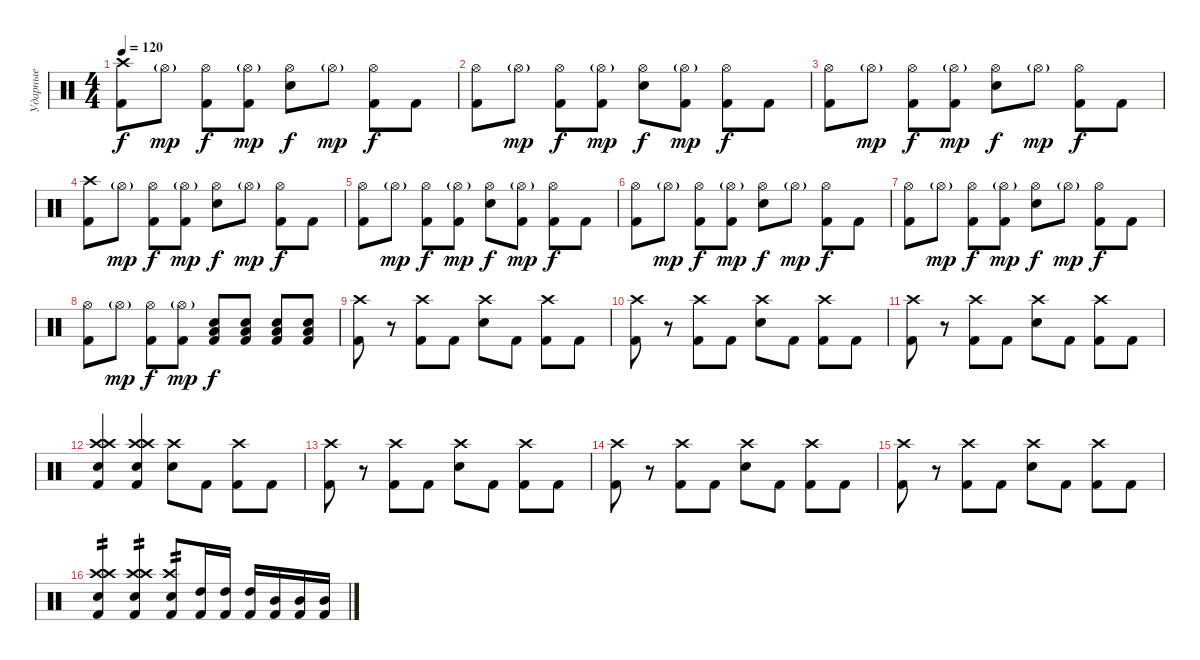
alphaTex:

\track ("Ударные" "Ударные") {instrument percussion}
\staff {score}
\articulation defaults
\ts (4 4)
\tempo 120
\clef neutral
\ks c
("Kick (hit) 2" "Crash high (hit)").8{dy f} "Hi-Hat (open)"{g}.8{dy mp} ("Hi-Hat (open)" "Kick (hit) 2").8{dy f} ("Hi-Hat (open)"{g} "Kick (hit) 2").8{dy mp} ("Hi-Hat (open)" "Snare (hit) 2").8{dy f} "Hi-Hat (open)"{g}.8{dy mp} ("Hi-Hat (open)" "Kick (hit) 2").8{dy f} "Kick (hit) 2".8 |
("Kick (hit) 2" "Hi-Hat (open)").8 "Hi-Hat (open)"{g}.8{dy mp} ("Hi-Hat (open)" "Kick (hit) 2").8{dy f} ("Hi-Hat (open)"{g} "Kick (hit) 2").8{dy mp} ("Hi-Hat (open)" "Snare (hit) 2").8{dy f} ("Hi-Hat (open)"{g} "Kick (hit) 2").8{dy mp} ("Hi-Hat (open)" "Kick (hit) 2").8{dy f} "Kick (hit) 2".8 |
("Kick (hit) 2" "Hi-Hat (open)").8 "Hi-Hat (open)"{g}.8{dy mp} ("Hi-Hat (open)" "Kick (hit) 2").8{dy f} ("Hi-Hat (open)"{g} "Kick (hit) 2").8{dy mp} ("Hi-Hat (open)" "Snare (hit) 2").8{dy f} "Hi-Hat (open)"{g}.8{dy mp} ("Hi-Hat (open)" "Kick (hit) 2").8{dy f} "Kick (hit) 2".8 |
("Kick (hit) 2" "Crash high (hit)").8 "Hi-Hat (open)"{g}.8{dy mp} ("Hi-Hat (open)" "Kick (hit) 2").8{dy f} ("Hi-Hat (open)"{g} "Kick (hit) 2").8{dy mp} ("Hi-Hat (open)" "Snare (hit) 2").8{dy f} "Hi-Hat (open)"{g}.8{dy mp} ("Hi-Hat (open)" "Kick (hit) 2").8{dy f} "Kick (hit) 2".8 |
("Kick (hit) 2" "Hi-Hat (open)").8 "Hi-Hat (open)"{g}.8{dy mp} ("Hi-Hat (open)" "Kick (hit) 2").8{dy f} ("Hi-Hat (open)"{g} "Kick (hit) 2").8{dy mp} ("Hi-Hat (open)" "Snare (hit) 2").8{dy f} ("Hi-Hat (open)"{g} "Kick (hit) 2").8{dy mp} ("Hi-Hat (open)" "Kick (hit) 2").8{dy f} "Kick (hit) 2".8 |
("Kick (hit) 2" "Hi-Hat (open)").8 "Hi-Hat (open)"{g}.8{dy mp} ("Hi-Hat (open)" "Kick (hit) 2").8{dy f} ("Hi-Hat (open)"{g} "Kick (hit) 2").8{dy mp} ("Hi-Hat (open)" "Snare (hit) 2").8{dy f} "Hi-Hat (open)"{g}.8{dy mp} ("Hi-Hat (open)" "Kick (hit) 2").8{dy f} "Kick (hit) 2".8 |
("Kick (hit) 2" "Hi-Hat (open)").8 "Hi-Hat (open)"{g}.8{dy mp} ("Hi-Hat (open)" "Kick (hit) 2").8{dy f} ("Hi-Hat (open)"{g} "Kick (hit) 2").8{dy mp} ("Hi-Hat (open)" "Snare (hit) 2").8{dy f} "Hi-Hat (open)"{g}.8{dy mp} ("Hi-Hat (open)" "Kick (hit) 2").8{dy f} "Kick (hit) 2".8 |
("Kick (hit) 2" "Hi-Hat (open)").8 "Hi-Hat (open)"{g}.8{dy mp} ("Hi-Hat (open)" "Kick (hit) 2").8{dy f} ("Hi-Hat (open)"{g} "Kick (hit) 2").8{dy mp} ("Low Floor Tom (hit)" "Snare (hit) 2" "Kick (hit) 2").8{dy f} ("Low Floor Tom (hit)" "Snare (hit) 2" "Kick (hit) 2").8 ("Low Floor Tom (hit)" "Snare (hit) 2" "Kick (hit) 2").8 ("Low Floor Tom (hit)" "Snare (hit) 2" "Kick (hit) 2").8 |
("Kick (hit) 2" "Crash high (hit)").8 r.8 ("Crash high (hit)" "Kick (hit) 2").8 "Kick (hit) 2".8 ("Crash high (hit)" "Snare (hit) 2").8 "Kick (hit) 2".8 ("Crash high (hit)" "Kick (hit) 2").8 "Kick (hit) 2".8 |
("Kick (hit) 2" "Crash high (hit)").8 r.8 ("Crash high (hit)" "Kick (hit) 2").8 "Kick (hit) 2".8 ("Crash high (hit)" "Snare (hit) 2").8 "Kick (hit) 2".8 ("Crash high (hit)" "Kick (hit) 2").8 "Kick (hit) 2".8 |
("Kick (hit) 2" "Crash high (hit)").8 r.8 ("Crash high (hit)" "Kick (hit) 2").8 "Kick (hit) 2".8 ("Crash high (hit)" "Snare (hit) 2").8 "Kick (hit) 2".8 ("Crash high (hit)" "Kick (hit) 2").8 "Kick (hit) 2".8 |
("Crash high (hit)" "Crash high (hit)" "Snare (hit) 2" "Kick (hit) 2").4 ("Crash high (hit)" "Crash high (hit)" "Snare (hit) 2" "Kick (hit) 2").4 ("Crash high (hit)" "Snare (hit) 2").8 "Kick (hit) 2".8 ("Crash high (hit)" "Kick (hit) 2").8 "Kick (hit) 2".8 |
("Kick (hit) 2" "Crash high (hit)").8 r.8 ("Crash high (hit)" "Kick (hit) 2").8 "Kick (hit) 2".8 ("Crash high (hit)" "Snare (hit) 2").8 "Kick (hit) 2".8 ("Crash high (hit)" "Kick (hit) 2").8 "Kick (hit) 2".8 |
("Kick (hit) 2" "Crash high (hit)").8 r.8 ("Crash high (hit)" "Kick (hit) 2").8 "Kick (hit) 2".8 ("Crash high (hit)" "Snare (hit) 2").8 "Kick (hit) 2".8 ("Crash high (hit)" "Kick (hit) 2").8 "Kick (hit) 2".8 |
("Kick (hit) 2" "Crash high (hit)").8 r.8 ("Crash high (hit)" "Kick (hit) 2").8 "Kick (hit) 2".8 ("Crash high (hit)" "Snare (hit) 2").8 "Kick (hit) 2".8 ("Crash high (hit)" "Kick (hit) 2").8 "Kick (hit) 2".8 |
("Crash high (hit)" "Crash high (hit)" "Snare (hit) 2" "Kick (hit) 2").4{tp 2} ("Crash high (hit)" "Crash high (hit)" "Snare (hit) 2" "Kick (hit) 2").4{tp 2} ("Crash high (hit)" "Snare (hit) 2" "Kick (hit) 2").8{tp 2} ("High Tom (hit)" "Kick (hit) 2").16 ("High Tom (hit)" "Kick (hit) 2").16 ("High Tom (hit)" "Kick (hit) 2").16 ("Mid Tom (hit)" "Kick (hit) 2").16 ("Mid Tom (hit)" "Kick (hit) 2").16 ("Mid Tom (hit)" "Kick (hit) 2").16
